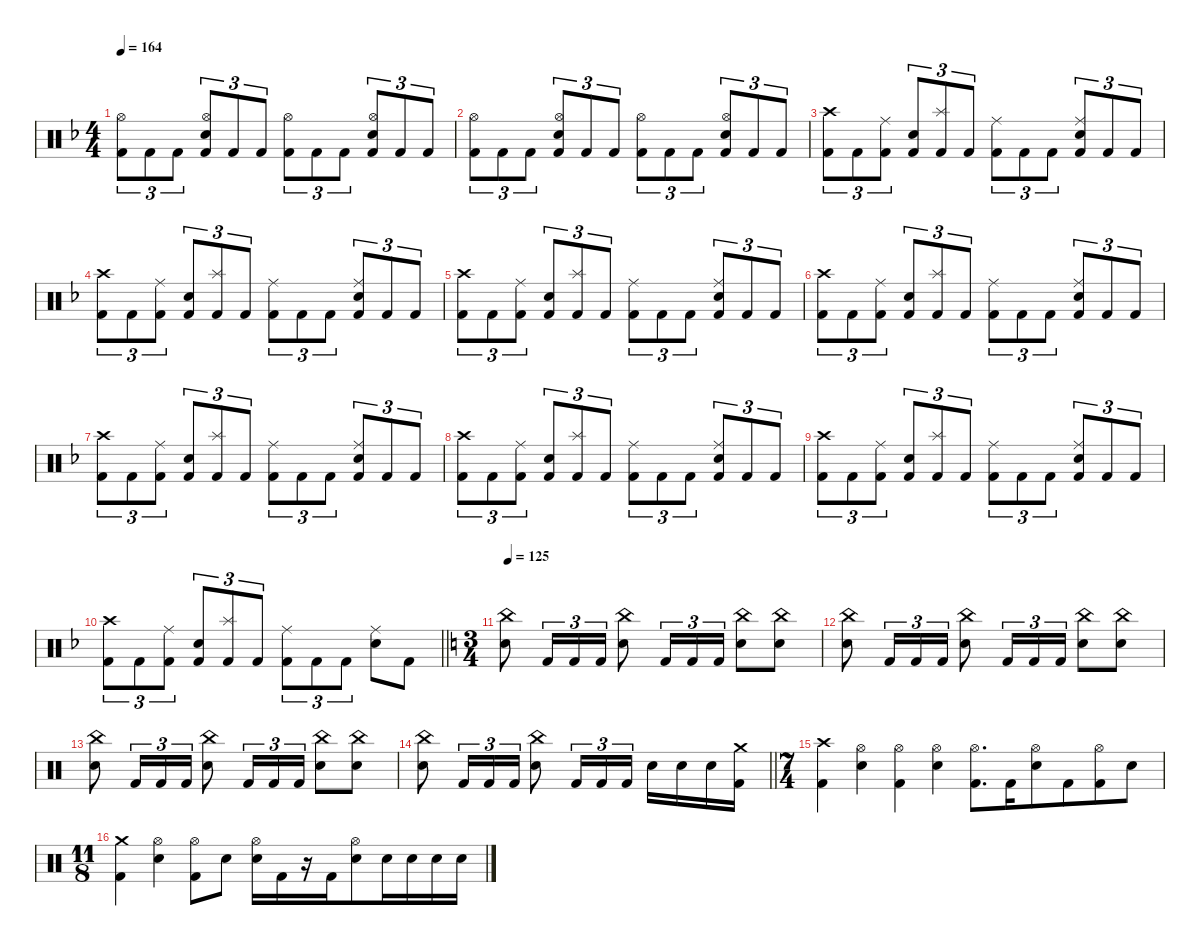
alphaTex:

\defaultSystemsLayout 4
\hideDynamics
\bracketExtendMode nobrackets
\singleTrackTrackNamePolicy hidden
\multiTrackTrackNamePolicy hidden
\otherSystemsTrackNameOrientation horizontal
\track ("Drums" "drm.") {defaultSystemsLayout 4 instrument percussion}
\staff {score}
\articulation defaults
\ts (4 4)
\tempo 164
\clef neutral
\ks f
("Kick (hit) 2"{acc forcenatural} "Hi-Hat (open)"{acc forcenatural}).8{tu (3 2) dy fff beam Down} "Kick (hit) 2"{acc forcenatural}.8{tu (3 2) beam Down} "Kick (hit) 2"{acc forcenatural}.8{tu (3 2) beam Down} ("Kick (hit) 2"{acc forcenatural} "Snare (hit) 2"{acc forcenatural} "Hi-Hat (open)"{acc forcenatural}).8{tu (3 2) beam Up} "Kick (hit) 2"{acc forcenatural}.8{tu (3 2) beam Up} "Kick (hit) 2"{acc forcenatural}.8{tu (3 2) beam Up} ("Kick (hit) 2"{acc forcenatural} "Hi-Hat (open)"{acc forcenatural}).8{tu (3 2) beam Down} "Kick (hit) 2"{acc forcenatural}.8{tu (3 2) beam Down} "Kick (hit) 2"{acc forcenatural}.8{tu (3 2) beam Down} ("Kick (hit) 2"{acc forcenatural} "Snare (hit) 2"{acc forcenatural} "Hi-Hat (open)"{acc forcenatural}).8{tu (3 2) beam Up} "Kick (hit) 2"{acc forcenatural}.8{tu (3 2) beam Up} "Kick (hit) 2"{acc forcenatural}.8{tu (3 2) beam Up} |
("Kick (hit) 2"{acc forcenatural} "Hi-Hat (open)"{acc forcenatural}).8{tu (3 2) beam Down} "Kick (hit) 2"{acc forcenatural}.8{tu (3 2) beam Down} "Kick (hit) 2"{acc forcenatural}.8{tu (3 2) beam Down} ("Kick (hit) 2"{acc forcenatural} "Snare (hit) 2"{acc forcenatural} "Hi-Hat (open)"{acc forcenatural}).8{tu (3 2) beam Up} "Kick (hit) 2"{acc forcenatural}.8{tu (3 2) beam Up} "Kick (hit) 2"{acc forcenatural}.8{tu (3 2) beam Up} ("Kick (hit) 2"{acc forcenatural} "Hi-Hat (open)"{acc forcenatural}).8{tu (3 2) beam Down} "Kick (hit) 2"{acc forcenatural}.8{tu (3 2) beam Down} "Kick (hit) 2"{acc forcenatural}.8{tu (3 2) beam Down} ("Kick (hit) 2"{acc forcenatural} "Snare (hit) 2"{acc forcenatural} "Hi-Hat (open)"{acc forcenatural}).8{tu (3 2) beam Up} "Kick (hit) 2"{acc forcenatural}.8{tu (3 2) beam Up} "Kick (hit) 2"{acc forcenatural}.8{tu (3 2) beam Up} |
("Kick (hit) 2"{acc forcenatural} "Crash high (hit)"{acc forcenatural}).8{tu (3 2) beam Down} "Kick (hit) 2"{acc forcenatural}.8{tu (3 2) beam Down} ("Kick (hit) 2"{acc forcenatural} "Ride (middle)"{acc forcenatural}).8{tu (3 2) beam Down} ("Kick (hit) 2"{acc forcenatural} "Snare (hit) 2"{acc forcenatural}).8{tu (3 2) beam Up} ("Kick (hit) 2"{acc forcenatural} "Splash (hit)"{acc forcenatural}).8{tu (3 2) beam Up} "Kick (hit) 2"{acc forcenatural}.8{tu (3 2) beam Up} ("Kick (hit) 2"{acc forcenatural} "Ride (middle)"{acc forcenatural}).8{tu (3 2) beam Down} "Kick (hit) 2"{acc forcenatural}.8{tu (3 2) beam Down} "Kick (hit) 2"{acc forcenatural}.8{tu (3 2) beam Down} ("Kick (hit) 2"{acc forcenatural} "Snare (hit) 2"{acc forcenatural} "Ride (middle)"{acc forcenatural}).8{tu (3 2) beam Up} "Kick (hit) 2"{acc forcenatural}.8{tu (3 2) beam Up} "Kick (hit) 2"{acc forcenatural}.8{tu (3 2) beam Up} |
("Kick (hit) 2"{acc forcenatural} "Crash high (hit)"{acc forcenatural}).8{tu (3 2) beam Down} "Kick (hit) 2"{acc forcenatural}.8{tu (3 2) beam Down} ("Kick (hit) 2"{acc forcenatural} "Ride (middle)"{acc forcenatural}).8{tu (3 2) beam Down} ("Kick (hit) 2"{acc forcenatural} "Snare (hit) 2"{acc forcenatural}).8{tu (3 2) beam Up} ("Kick (hit) 2"{acc forcenatural} "Splash (hit)"{acc forcenatural}).8{tu (3 2) beam Up} "Kick (hit) 2"{acc forcenatural}.8{tu (3 2) beam Up} ("Kick (hit) 2"{acc forcenatural} "Ride (middle)"{acc forcenatural}).8{tu (3 2) beam Down} "Kick (hit) 2"{acc forcenatural}.8{tu (3 2) beam Down} "Kick (hit) 2"{acc forcenatural}.8{tu (3 2) beam Down} ("Kick (hit) 2"{acc forcenatural} "Snare (hit) 2"{acc forcenatural} "Ride (middle)"{acc forcenatural}).8{tu (3 2) beam Up} "Kick (hit) 2"{acc forcenatural}.8{tu (3 2) beam Up} "Kick (hit) 2"{acc forcenatural}.8{tu (3 2) beam Up} |
("Kick (hit) 2"{acc forcenatural} "Crash high (hit)"{acc forcenatural}).8{tu (3 2) beam Down} "Kick (hit) 2"{acc forcenatural}.8{tu (3 2) beam Down} ("Kick (hit) 2"{acc forcenatural} "Ride (middle)"{acc forcenatural}).8{tu (3 2) beam Down} ("Kick (hit) 2"{acc forcenatural} "Snare (hit) 2"{acc forcenatural}).8{tu (3 2) beam Up} ("Kick (hit) 2"{acc forcenatural} "Splash (hit)"{acc forcenatural}).8{tu (3 2) beam Up} "Kick (hit) 2"{acc forcenatural}.8{tu (3 2) beam Up} ("Kick (hit) 2"{acc forcenatural} "Ride (middle)"{acc forcenatural}).8{tu (3 2) beam Down} "Kick (hit) 2"{acc forcenatural}.8{tu (3 2) beam Down} "Kick (hit) 2"{acc forcenatural}.8{tu (3 2) beam Down} ("Kick (hit) 2"{acc forcenatural} "Snare (hit) 2"{acc forcenatural} "Ride (middle)"{acc forcenatural}).8{tu (3 2) beam Up} "Kick (hit) 2"{acc forcenatural}.8{tu (3 2) beam Up} "Kick (hit) 2"{acc forcenatural}.8{tu (3 2) beam Up} |
("Kick (hit) 2"{acc forcenatural} "Crash high (hit)"{acc forcenatural}).8{tu (3 2) beam Down} "Kick (hit) 2"{acc forcenatural}.8{tu (3 2) beam Down} ("Kick (hit) 2"{acc forcenatural} "Ride (middle)"{acc forcenatural}).8{tu (3 2) beam Down} ("Kick (hit) 2"{acc forcenatural} "Snare (hit) 2"{acc forcenatural}).8{tu (3 2) beam Up} ("Kick (hit) 2"{acc forcenatural} "Splash (hit)"{acc forcenatural}).8{tu (3 2) beam Up} "Kick (hit) 2"{acc forcenatural}.8{tu (3 2) beam Up} ("Kick (hit) 2"{acc forcenatural} "Ride (middle)"{acc forcenatural}).8{tu (3 2) beam Down} "Kick (hit) 2"{acc forcenatural}.8{tu (3 2) beam Down} "Kick (hit) 2"{acc forcenatural}.8{tu (3 2) beam Down} ("Kick (hit) 2"{acc forcenatural} "Snare (hit) 2"{acc forcenatural} "Ride (middle)"{acc forcenatural}).8{tu (3 2) beam Up} "Kick (hit) 2"{acc forcenatural}.8{tu (3 2) beam Up} "Kick (hit) 2"{acc forcenatural}.8{tu (3 2) beam Up} |
("Kick (hit) 2"{acc forcenatural} "Crash high (hit)"{acc forcenatural}).8{tu (3 2) beam Down} "Kick (hit) 2"{acc forcenatural}.8{tu (3 2) beam Down} ("Kick (hit) 2"{acc forcenatural} "Ride (middle)"{acc forcenatural}).8{tu (3 2) beam Down} ("Kick (hit) 2"{acc forcenatural} "Snare (hit) 2"{acc forcenatural}).8{tu (3 2) beam Up} ("Kick (hit) 2"{acc forcenatural} "Splash (hit)"{acc forcenatural}).8{tu (3 2) beam Up} "Kick (hit) 2"{acc forcenatural}.8{tu (3 2) beam Up} ("Kick (hit) 2"{acc forcenatural} "Ride (middle)"{acc forcenatural}).8{tu (3 2) beam Down} "Kick (hit) 2"{acc forcenatural}.8{tu (3 2) beam Down} "Kick (hit) 2"{acc forcenatural}.8{tu (3 2) beam Down} ("Kick (hit) 2"{acc forcenatural} "Snare (hit) 2"{acc forcenatural} "Ride (middle)"{acc forcenatural}).8{tu (3 2) beam Up} "Kick (hit) 2"{acc forcenatural}.8{tu (3 2) beam Up} "Kick (hit) 2"{acc forcenatural}.8{tu (3 2) beam Up} |
("Kick (hit) 2"{acc forcenatural} "Crash high (hit)"{acc forcenatural}).8{tu (3 2) beam Down} "Kick (hit) 2"{acc forcenatural}.8{tu (3 2) beam Down} ("Kick (hit) 2"{acc forcenatural} "Ride (middle)"{acc forcenatural}).8{tu (3 2) beam Down} ("Kick (hit) 2"{acc forcenatural} "Snare (hit) 2"{acc forcenatural}).8{tu (3 2) beam Up} ("Kick (hit) 2"{acc forcenatural} "Splash (hit)"{acc forcenatural}).8{tu (3 2) beam Up} "Kick (hit) 2"{acc forcenatural}.8{tu (3 2) beam Up} ("Kick (hit) 2"{acc forcenatural} "Ride (middle)"{acc forcenatural}).8{tu (3 2) beam Down} "Kick (hit) 2"{acc forcenatural}.8{tu (3 2) beam Down} "Kick (hit) 2"{acc forcenatural}.8{tu (3 2) beam Down} ("Kick (hit) 2"{acc forcenatural} "Snare (hit) 2"{acc forcenatural} "Ride (middle)"{acc forcenatural}).8{tu (3 2) beam Up} "Kick (hit) 2"{acc forcenatural}.8{tu (3 2) beam Up} "Kick (hit) 2"{acc forcenatural}.8{tu (3 2) beam Up} |
("Kick (hit) 2"{acc forcenatural} "Crash high (hit)"{acc forcenatural}).8{tu (3 2) beam Down} "Kick (hit) 2"{acc forcenatural}.8{tu (3 2) beam Down} ("Kick (hit) 2"{acc forcenatural} "Ride (middle)"{acc forcenatural}).8{tu (3 2) beam Down} ("Kick (hit) 2"{acc forcenatural} "Snare (hit) 2"{acc forcenatural}).8{tu (3 2) beam Up} ("Kick (hit) 2"{acc forcenatural} "Splash (hit)"{acc forcenatural}).8{tu (3 2) beam Up} "Kick (hit) 2"{acc forcenatural}.8{tu (3 2) beam Up} ("Kick (hit) 2"{acc forcenatural} "Ride (middle)"{acc forcenatural}).8{tu (3 2) beam Down} "Kick (hit) 2"{acc forcenatural}.8{tu (3 2) beam Down} "Kick (hit) 2"{acc forcenatural}.8{tu (3 2) beam Down} ("Kick (hit) 2"{acc forcenatural} "Snare (hit) 2"{acc forcenatural} "Ride (middle)"{acc forcenatural}).8{tu (3 2) beam Up} "Kick (hit) 2"{acc forcenatural}.8{tu (3 2) beam Up} "Kick (hit) 2"{acc forcenatural}.8{tu (3 2) beam Up} |
\barLineRight lightlight
("Kick (hit) 2"{acc forcenatural} "Crash high (hit)"{acc forcenatural}).8{tu (3 2) beam Down} "Kick (hit) 2"{acc forcenatural}.8{tu (3 2) beam Down} ("Kick (hit) 2"{acc forcenatural} "Ride (middle)"{acc forcenatural}).8{tu (3 2) beam Down} ("Kick (hit) 2"{acc forcenatural} "Snare (hit) 2"{acc forcenatural}).8{tu (3 2) beam Up} ("Kick (hit) 2"{acc forcenatural} "Splash (hit)"{acc forcenatural}).8{tu (3 2) beam Up} "Kick (hit) 2"{acc forcenatural}.8{tu (3 2) beam Up} ("Kick (hit) 2"{acc forcenatural} "Ride (middle)"{acc forcenatural}).8{tu (3 2) beam Down} "Kick (hit) 2"{acc forcenatural}.8{tu (3 2) beam Down} "Kick (hit) 2"{acc forcenatural}.8{tu (3 2) beam Down} ("Snare (hit) 2"{acc forcenatural} "Ride (middle)"{acc forcenatural}).8{beam Down} "Kick (hit) 2"{acc forcenatural}.8{beam Down} |
\ts (3 4)
\beaming (8 2 2 2)
\tempo 125
\ks c
("Snare (hit) 2" "China (hit)").8{beam Down} "Kick (hit) 2".16{tu (3 2) beam Up} "Kick (hit) 2".16{tu (3 2) beam Up} "Kick (hit) 2".16{tu (3 2) beam Up} ("Snare (hit) 2" "China (hit)").8{beam Down} "Kick (hit) 2".16{tu (3 2) beam Up} "Kick (hit) 2".16{tu (3 2) beam Up} "Kick (hit) 2".16{tu (3 2) beam Up} ("Snare (hit) 2" "China (hit)").8{beam Down} ("Snare (hit) 2" "China (hit)").8{beam Down} |
("Snare (hit) 2" "China (hit)").8{beam Down} "Kick (hit) 2".16{tu (3 2) beam Up} "Kick (hit) 2".16{tu (3 2) beam Up} "Kick (hit) 2".16{tu (3 2) beam Up} ("Snare (hit) 2" "China (hit)").8{beam Down} "Kick (hit) 2".16{tu (3 2) beam Up} "Kick (hit) 2".16{tu (3 2) beam Up} "Kick (hit) 2".16{tu (3 2) beam Up} ("Snare (hit) 2" "China (hit)").8{beam Down} ("Snare (hit) 2" "China (hit)").8{beam Down} |
("Snare (hit) 2" "China (hit)").8{beam Down} "Kick (hit) 2".16{tu (3 2) beam Up} "Kick (hit) 2".16{tu (3 2) beam Up} "Kick (hit) 2".16{tu (3 2) beam Up} ("Snare (hit) 2" "China (hit)").8{beam Down} "Kick (hit) 2".16{tu (3 2) beam Up} "Kick (hit) 2".16{tu (3 2) beam Up} "Kick (hit) 2".16{tu (3 2) beam Up} ("Snare (hit) 2" "China (hit)").8{beam Down} ("Snare (hit) 2" "China (hit)").8{beam Down} |
\barLineRight lightlight
("Snare (hit) 2" "China (hit)").8{beam Down} "Kick (hit) 2".16{tu (3 2) beam Up} "Kick (hit) 2".16{tu (3 2) beam Up} "Kick (hit) 2".16{tu (3 2) beam Up} ("Snare (hit) 2" "China (hit)").8{beam Down} "Kick (hit) 2".16{tu (3 2) beam Up} "Kick (hit) 2".16{tu (3 2) beam Up} "Kick (hit) 2".16{tu (3 2) beam Up} "Snare (hit) 2".16{beam Down} "Snare (hit) 2".16{beam Down} "Snare (hit) 2".16{beam Down} ("Kick (hit) 2" "Crash medium (hit)").16{beam Down} |
\ts (7 4)
\beaming (8 2 2 2 8)
("Kick (hit) 2" "Crash high (hit)").4{beam Down} ("Snare (hit) 2" "Hi-Hat (open)").4{beam Down} ("Kick (hit) 2" "Hi-Hat (open)").4{beam Down} ("Snare (hit) 2" "Hi-Hat (open)").4{beam Down} ("Kick (hit) 2" "Hi-Hat (open)").8{d beam Down} "Kick (hit) 2".16{beam Down} ("Snare (hit) 2" "Hi-Hat (open)").8{beam Down} "Kick (hit) 2".8{beam Down} ("Kick (hit) 2" "Hi-Hat (open)").8{beam Down} "Snare (hit) 2".8{beam Down} |
\ts (11 8)
\beaming (8 2 2 2 5)
("Kick (hit) 2" "Crash medium (hit)").4{beam Down} ("Snare (hit) 2" "Hi-Hat (open)").4{beam Down} ("Kick (hit) 2" "Hi-Hat (open)").8{beam Down} "Snare (hit) 2".8{beam Down} ("Snare (hit) 2" "Hi-Hat (open)").16{beam Down} "Kick (hit) 2".16{beam Down} r.16{beam Down} "Kick (hit) 2".16{beam Down} ("Snare (hit) 2" "Hi-Hat (open)").8{beam Down} "Snare (hit) 2".16{beam Down} "Snare (hit) 2".16{beam Down} "Snare (hit) 2".16{beam Down} "Snare (hit) 2".16{beam Down}
